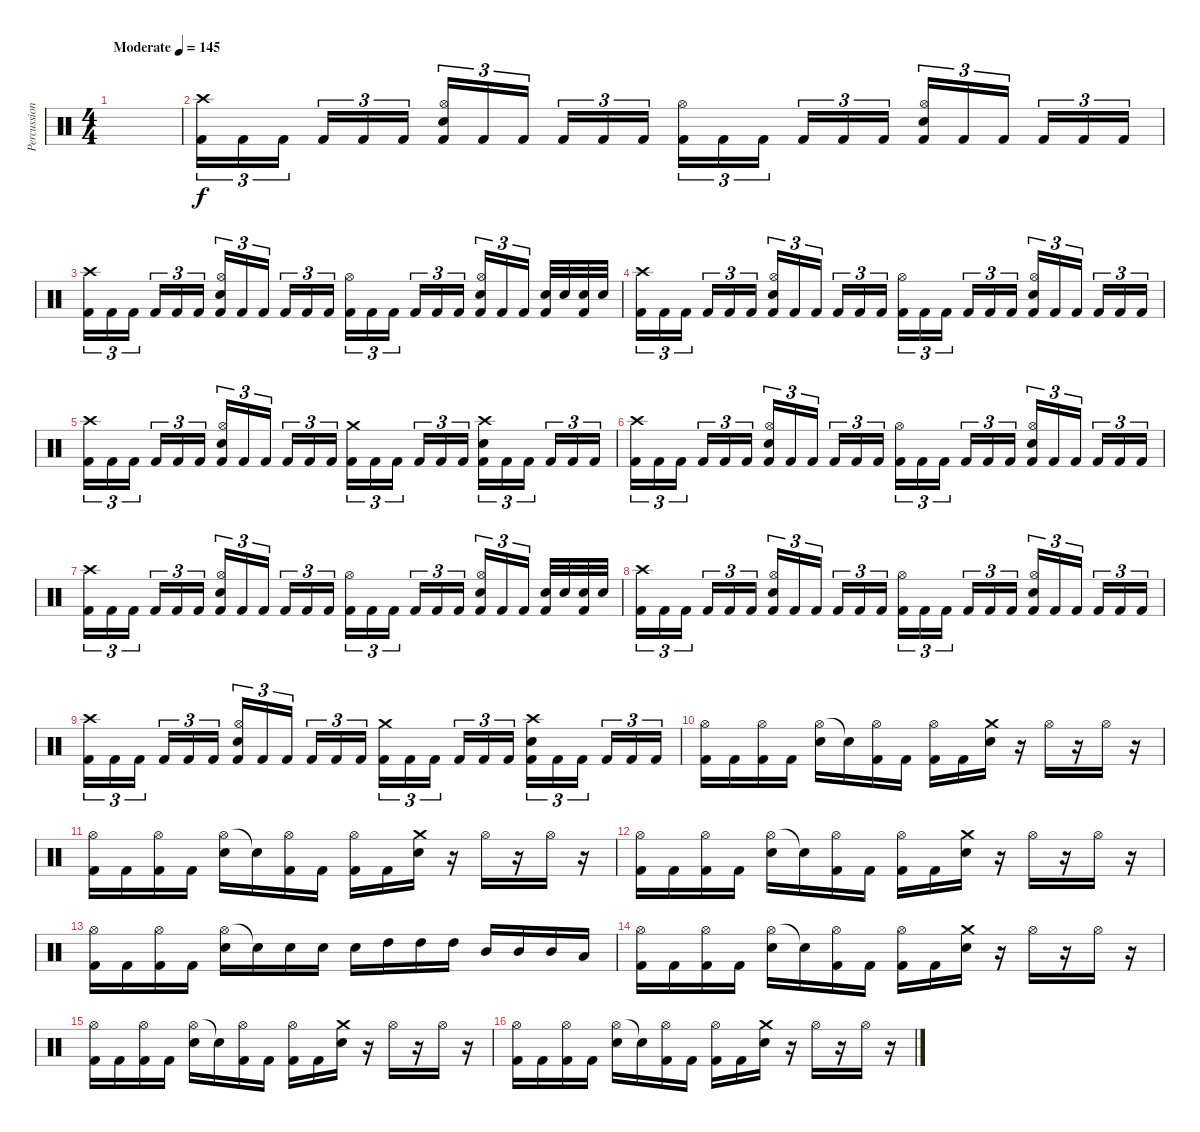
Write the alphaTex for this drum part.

\track ("Percussions" "Percussion") {instrument percussion}
\staff {score}
\articulation defaults
\ts (4 4)
\tempo (145 "Moderate")
\clef neutral
\ks c
|
("Crash high (hit)" "Kick (hit) 2").16{tu (3 2)} "Kick (hit) 2".16{tu (3 2)} "Kick (hit) 2".16{tu (3 2) beam splitsecondary} "Kick (hit) 2".16{tu (3 2)} "Kick (hit) 2".16{tu (3 2)} "Kick (hit) 2".16{tu (3 2)} ("Hi-Hat (open)" "Electric Snare (hit)" "Kick (hit) 2").16{tu (3 2)} "Kick (hit) 2".16{tu (3 2)} "Kick (hit) 2".16{tu (3 2) beam splitsecondary} "Kick (hit) 2".16{tu (3 2)} "Kick (hit) 2".16{tu (3 2)} "Kick (hit) 2".16{tu (3 2)} ("Hi-Hat (open)" "Kick (hit) 2").16{tu (3 2)} "Kick (hit) 2".16{tu (3 2)} "Kick (hit) 2".16{tu (3 2) beam splitsecondary} "Kick (hit) 2".16{tu (3 2)} "Kick (hit) 2".16{tu (3 2)} "Kick (hit) 2".16{tu (3 2)} ("Hi-Hat (open)" "Electric Snare (hit)" "Kick (hit) 2").16{tu (3 2)} "Kick (hit) 2".16{tu (3 2)} "Kick (hit) 2".16{tu (3 2) beam splitsecondary} "Kick (hit) 2".16{tu (3 2)} "Kick (hit) 2".16{tu (3 2)} "Kick (hit) 2".16{tu (3 2)} |
("Crash high (hit)" "Kick (hit) 2").16{tu (3 2)} "Kick (hit) 2".16{tu (3 2)} "Kick (hit) 2".16{tu (3 2) beam splitsecondary} "Kick (hit) 2".16{tu (3 2)} "Kick (hit) 2".16{tu (3 2)} "Kick (hit) 2".16{tu (3 2)} ("Hi-Hat (open)" "Electric Snare (hit)" "Kick (hit) 2").16{tu (3 2)} "Kick (hit) 2".16{tu (3 2)} "Kick (hit) 2".16{tu (3 2) beam splitsecondary} "Kick (hit) 2".16{tu (3 2)} "Kick (hit) 2".16{tu (3 2)} "Kick (hit) 2".16{tu (3 2)} ("Hi-Hat (open)" "Kick (hit) 2").16{tu (3 2)} "Kick (hit) 2".16{tu (3 2)} "Kick (hit) 2".16{tu (3 2) beam splitsecondary} "Kick (hit) 2".16{tu (3 2)} "Kick (hit) 2".16{tu (3 2)} "Kick (hit) 2".16{tu (3 2)} ("Hi-Hat (open)" "Electric Snare (hit)" "Kick (hit) 2").16{tu (3 2)} "Kick (hit) 2".16{tu (3 2)} "Kick (hit) 2".16{tu (3 2) beam splitsecondary} ("Electric Snare (hit)" "Kick (hit) 2").32 "Electric Snare (hit)".32 ("Electric Snare (hit)" "Kick (hit) 2").32 "Electric Snare (hit)".32 |
("Crash high (hit)" "Kick (hit) 2").16{tu (3 2)} "Kick (hit) 2".16{tu (3 2)} "Kick (hit) 2".16{tu (3 2) beam splitsecondary} "Kick (hit) 2".16{tu (3 2)} "Kick (hit) 2".16{tu (3 2)} "Kick (hit) 2".16{tu (3 2)} ("Hi-Hat (open)" "Electric Snare (hit)" "Kick (hit) 2").16{tu (3 2)} "Kick (hit) 2".16{tu (3 2)} "Kick (hit) 2".16{tu (3 2) beam splitsecondary} "Kick (hit) 2".16{tu (3 2)} "Kick (hit) 2".16{tu (3 2)} "Kick (hit) 2".16{tu (3 2)} ("Hi-Hat (open)" "Kick (hit) 2").16{tu (3 2)} "Kick (hit) 2".16{tu (3 2)} "Kick (hit) 2".16{tu (3 2) beam splitsecondary} "Kick (hit) 2".16{tu (3 2)} "Kick (hit) 2".16{tu (3 2)} "Kick (hit) 2".16{tu (3 2)} ("Hi-Hat (open)" "Electric Snare (hit)" "Kick (hit) 2").16{tu (3 2)} "Kick (hit) 2".16{tu (3 2)} "Kick (hit) 2".16{tu (3 2) beam splitsecondary} "Kick (hit) 2".16{tu (3 2)} "Kick (hit) 2".16{tu (3 2)} "Kick (hit) 2".16{tu (3 2)} |
("Crash high (hit)" "Kick (hit) 2").16{tu (3 2)} "Kick (hit) 2".16{tu (3 2)} "Kick (hit) 2".16{tu (3 2) beam splitsecondary} "Kick (hit) 2".16{tu (3 2)} "Kick (hit) 2".16{tu (3 2)} "Kick (hit) 2".16{tu (3 2)} ("Hi-Hat (open)" "Electric Snare (hit)" "Kick (hit) 2").16{tu (3 2)} "Kick (hit) 2".16{tu (3 2)} "Kick (hit) 2".16{tu (3 2) beam splitsecondary} "Kick (hit) 2".16{tu (3 2)} "Kick (hit) 2".16{tu (3 2)} "Kick (hit) 2".16{tu (3 2)} ("Crash medium (hit)" "Kick (hit) 2").16{tu (3 2)} "Kick (hit) 2".16{tu (3 2)} "Kick (hit) 2".16{tu (3 2) beam splitsecondary} "Kick (hit) 2".16{tu (3 2)} "Kick (hit) 2".16{tu (3 2)} "Kick (hit) 2".16{tu (3 2)} ("Crash high (hit)" "Electric Snare (hit)" "Kick (hit) 2").16{tu (3 2)} "Kick (hit) 2".16{tu (3 2)} "Kick (hit) 2".16{tu (3 2) beam splitsecondary} "Kick (hit) 2".16{tu (3 2)} "Kick (hit) 2".16{tu (3 2)} "Kick (hit) 2".16{tu (3 2)} |
("Crash high (hit)" "Kick (hit) 2").16{tu (3 2)} "Kick (hit) 2".16{tu (3 2)} "Kick (hit) 2".16{tu (3 2) beam splitsecondary} "Kick (hit) 2".16{tu (3 2)} "Kick (hit) 2".16{tu (3 2)} "Kick (hit) 2".16{tu (3 2)} ("Hi-Hat (open)" "Electric Snare (hit)" "Kick (hit) 2").16{tu (3 2)} "Kick (hit) 2".16{tu (3 2)} "Kick (hit) 2".16{tu (3 2) beam splitsecondary} "Kick (hit) 2".16{tu (3 2)} "Kick (hit) 2".16{tu (3 2)} "Kick (hit) 2".16{tu (3 2)} ("Hi-Hat (open)" "Kick (hit) 2").16{tu (3 2)} "Kick (hit) 2".16{tu (3 2)} "Kick (hit) 2".16{tu (3 2) beam splitsecondary} "Kick (hit) 2".16{tu (3 2)} "Kick (hit) 2".16{tu (3 2)} "Kick (hit) 2".16{tu (3 2)} ("Hi-Hat (open)" "Electric Snare (hit)" "Kick (hit) 2").16{tu (3 2)} "Kick (hit) 2".16{tu (3 2)} "Kick (hit) 2".16{tu (3 2) beam splitsecondary} "Kick (hit) 2".16{tu (3 2)} "Kick (hit) 2".16{tu (3 2)} "Kick (hit) 2".16{tu (3 2)} |
("Crash high (hit)" "Kick (hit) 2").16{tu (3 2)} "Kick (hit) 2".16{tu (3 2)} "Kick (hit) 2".16{tu (3 2) beam splitsecondary} "Kick (hit) 2".16{tu (3 2)} "Kick (hit) 2".16{tu (3 2)} "Kick (hit) 2".16{tu (3 2)} ("Hi-Hat (open)" "Electric Snare (hit)" "Kick (hit) 2").16{tu (3 2)} "Kick (hit) 2".16{tu (3 2)} "Kick (hit) 2".16{tu (3 2) beam splitsecondary} "Kick (hit) 2".16{tu (3 2)} "Kick (hit) 2".16{tu (3 2)} "Kick (hit) 2".16{tu (3 2)} ("Hi-Hat (open)" "Kick (hit) 2").16{tu (3 2)} "Kick (hit) 2".16{tu (3 2)} "Kick (hit) 2".16{tu (3 2) beam splitsecondary} "Kick (hit) 2".16{tu (3 2)} "Kick (hit) 2".16{tu (3 2)} "Kick (hit) 2".16{tu (3 2)} ("Hi-Hat (open)" "Electric Snare (hit)" "Kick (hit) 2").16{tu (3 2)} "Kick (hit) 2".16{tu (3 2)} "Kick (hit) 2".16{tu (3 2) beam splitsecondary} ("Electric Snare (hit)" "Kick (hit) 2").32 "Electric Snare (hit)".32 ("Electric Snare (hit)" "Kick (hit) 2").32 "Electric Snare (hit)".32 |
("Crash high (hit)" "Kick (hit) 2").16{tu (3 2)} "Kick (hit) 2".16{tu (3 2)} "Kick (hit) 2".16{tu (3 2) beam splitsecondary} "Kick (hit) 2".16{tu (3 2)} "Kick (hit) 2".16{tu (3 2)} "Kick (hit) 2".16{tu (3 2)} ("Hi-Hat (open)" "Electric Snare (hit)" "Kick (hit) 2").16{tu (3 2)} "Kick (hit) 2".16{tu (3 2)} "Kick (hit) 2".16{tu (3 2) beam splitsecondary} "Kick (hit) 2".16{tu (3 2)} "Kick (hit) 2".16{tu (3 2)} "Kick (hit) 2".16{tu (3 2)} ("Hi-Hat (open)" "Kick (hit) 2").16{tu (3 2)} "Kick (hit) 2".16{tu (3 2)} "Kick (hit) 2".16{tu (3 2) beam splitsecondary} "Kick (hit) 2".16{tu (3 2)} "Kick (hit) 2".16{tu (3 2)} "Kick (hit) 2".16{tu (3 2)} ("Hi-Hat (open)" "Electric Snare (hit)" "Kick (hit) 2").16{tu (3 2)} "Kick (hit) 2".16{tu (3 2)} "Kick (hit) 2".16{tu (3 2) beam splitsecondary} "Kick (hit) 2".16{tu (3 2)} "Kick (hit) 2".16{tu (3 2)} "Kick (hit) 2".16{tu (3 2)} |
("Crash high (hit)" "Kick (hit) 2").16{tu (3 2)} "Kick (hit) 2".16{tu (3 2)} "Kick (hit) 2".16{tu (3 2) beam splitsecondary} "Kick (hit) 2".16{tu (3 2)} "Kick (hit) 2".16{tu (3 2)} "Kick (hit) 2".16{tu (3 2)} ("Hi-Hat (open)" "Electric Snare (hit)" "Kick (hit) 2").16{tu (3 2)} "Kick (hit) 2".16{tu (3 2)} "Kick (hit) 2".16{tu (3 2) beam splitsecondary} "Kick (hit) 2".16{tu (3 2)} "Kick (hit) 2".16{tu (3 2)} "Kick (hit) 2".16{tu (3 2)} ("Crash medium (hit)" "Kick (hit) 2").16{tu (3 2)} "Kick (hit) 2".16{tu (3 2)} "Kick (hit) 2".16{tu (3 2) beam splitsecondary} "Kick (hit) 2".16{tu (3 2)} "Kick (hit) 2".16{tu (3 2)} "Kick (hit) 2".16{tu (3 2)} ("Crash high (hit)" "Electric Snare (hit)" "Kick (hit) 2").16{tu (3 2)} "Kick (hit) 2".16{tu (3 2)} "Kick (hit) 2".16{tu (3 2) beam splitsecondary} "Kick (hit) 2".16{tu (3 2)} "Kick (hit) 2".16{tu (3 2)} "Kick (hit) 2".16{tu (3 2)} |
("Hi-Hat (open)" "Kick (hit) 2").16 "Kick (hit) 2".16 ("Hi-Hat (open)" "Kick (hit) 2").16 "Kick (hit) 2".16 ("Hi-Hat (open)" "Electric Snare (hit)").16 "Snare (hit)"{t}.16 ("Hi-Hat (open)" "Kick (hit) 2").16 "Kick (hit) 2".16 ("Hi-Hat (open)" "Kick (hit) 2").16 "Kick (hit) 2".16 ("Crash medium (hit)" "Electric Snare (hit)").16 r.16 "Hi-Hat (open)".16 r.16 "Hi-Hat (open)".16 r.16 |
("Hi-Hat (open)" "Kick (hit) 2").16 "Kick (hit) 2".16 ("Hi-Hat (open)" "Kick (hit) 2").16 "Kick (hit) 2".16 ("Hi-Hat (open)" "Electric Snare (hit)").16 "Snare (hit)"{t}.16 ("Hi-Hat (open)" "Kick (hit) 2").16 "Kick (hit) 2".16 ("Hi-Hat (open)" "Kick (hit) 2").16 "Kick (hit) 2".16 ("Crash medium (hit)" "Electric Snare (hit)").16 r.16 "Hi-Hat (open)".16 r.16 "Hi-Hat (open)".16 r.16 |
("Hi-Hat (open)" "Kick (hit) 2").16 "Kick (hit) 2".16 ("Hi-Hat (open)" "Kick (hit) 2").16 "Kick (hit) 2".16 ("Hi-Hat (open)" "Electric Snare (hit)").16 "Snare (hit)"{t}.16 ("Hi-Hat (open)" "Kick (hit) 2").16 "Kick (hit) 2".16 ("Hi-Hat (open)" "Kick (hit) 2").16 "Kick (hit) 2".16 ("Crash medium (hit)" "Electric Snare (hit)").16 r.16 "Hi-Hat (open)".16 r.16 "Hi-Hat (open)".16 r.16 |
("Hi-Hat (open)" "Kick (hit) 2").16 "Kick (hit) 2".16 ("Hi-Hat (open)" "Kick (hit) 2").16 "Kick (hit) 2".16 ("Hi-Hat (open)" "Electric Snare (hit)").16 "Snare (hit)"{t}.16 "Electric Snare (hit)".16 "Electric Snare (hit)".16 "Electric Snare (hit)".16 "High Tom (hit)".16 "High Tom (hit)".16 "High Tom (hit)".16 "Mid Tom (hit)".16 "Mid Tom (hit)".16 "Mid Tom (hit)".16 "Low Tom (hit)".16 |
("Hi-Hat (open)" "Kick (hit) 2").16 "Kick (hit) 2".16 ("Hi-Hat (open)" "Kick (hit) 2").16 "Kick (hit) 2".16 ("Hi-Hat (open)" "Electric Snare (hit)").16 "Snare (hit)"{t}.16 ("Hi-Hat (open)" "Kick (hit) 2").16 "Kick (hit) 2".16 ("Hi-Hat (open)" "Kick (hit) 2").16 "Kick (hit) 2".16 ("Crash medium (hit)" "Electric Snare (hit)").16 r.16 "Hi-Hat (open)".16 r.16 "Hi-Hat (open)".16 r.16 |
("Hi-Hat (open)" "Kick (hit) 2").16 "Kick (hit) 2".16 ("Hi-Hat (open)" "Kick (hit) 2").16 "Kick (hit) 2".16 ("Hi-Hat (open)" "Electric Snare (hit)").16 "Snare (hit)"{t}.16 ("Hi-Hat (open)" "Kick (hit) 2").16 "Kick (hit) 2".16 ("Hi-Hat (open)" "Kick (hit) 2").16 "Kick (hit) 2".16 ("Crash medium (hit)" "Electric Snare (hit)").16 r.16 "Hi-Hat (open)".16 r.16 "Hi-Hat (open)".16 r.16 |
("Hi-Hat (open)" "Kick (hit) 2").16 "Kick (hit) 2".16 ("Hi-Hat (open)" "Kick (hit) 2").16 "Kick (hit) 2".16 ("Hi-Hat (open)" "Electric Snare (hit)").16 "Snare (hit)"{t}.16 ("Hi-Hat (open)" "Kick (hit) 2").16 "Kick (hit) 2".16 ("Hi-Hat (open)" "Kick (hit) 2").16 "Kick (hit) 2".16 ("Crash medium (hit)" "Electric Snare (hit)").16 r.16 "Hi-Hat (open)".16 r.16 "Hi-Hat (open)".16 r.16
